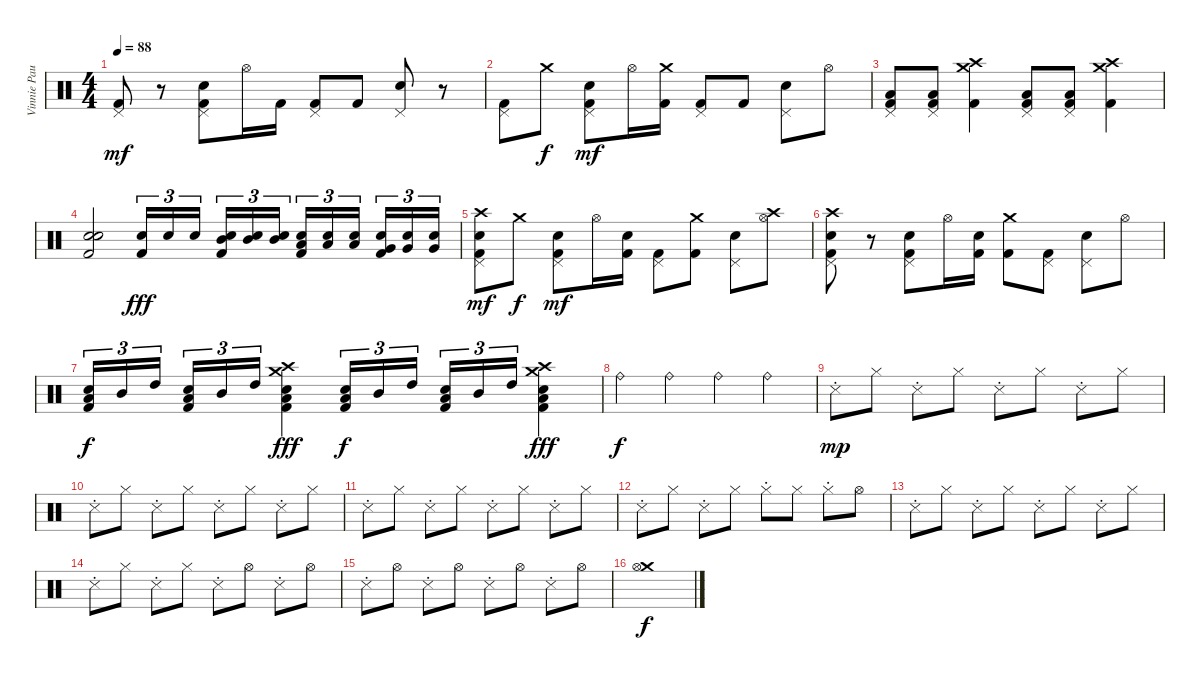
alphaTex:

\track ("Vinnie Paul" "Vinnie Pau") {instrument percussion}
\staff {score}
\articulation defaults
\ts (4 4)
\tempo 88
\clef neutral
\ks c
("Pedal Hi-Hat (hit)" "Kick (hit) 2").8{dy mf} r.8 ("Pedal Hi-Hat (hit)" "Snare (hit) 2" "Kick (hit) 2").8 "Hi-Hat (open)".16 "Kick (hit) 2".16 ("Pedal Hi-Hat (hit)" "Kick (hit) 2").8 "Kick (hit) 2".8 ("Pedal Hi-Hat (hit)" "Snare (hit) 2").8 r.8 |
("Pedal Hi-Hat (hit)" "Kick (hit) 2").8 "Crash medium (hit)".8{dy f} ("Pedal Hi-Hat (hit)" "Snare (hit) 2" "Kick (hit) 2").8{dy mf} "Hi-Hat (open)".16 ("Crash medium (hit)" "Kick (hit) 2").16 ("Pedal Hi-Hat (hit)" "Kick (hit) 2").8 "Kick (hit) 2".8 ("Pedal Hi-Hat (hit)" "Snare (hit) 2").8 "Hi-Hat (open)".8 |
("Pedal Hi-Hat (hit)" "Low Floor Tom (hit)" "Kick (hit) 2").8 ("Pedal Hi-Hat (hit)" "Low Floor Tom (hit)" "Kick (hit) 2").8 ("Crash high (hit)" "Crash medium (hit)" "Kick (hit) 2").4 ("Pedal Hi-Hat (hit)" "Low Floor Tom (hit)" "Kick (hit) 2").8 ("Pedal Hi-Hat (hit)" "Low Floor Tom (hit)" "Kick (hit) 2").8 ("Crash high (hit)" "Crash medium (hit)" "Kick (hit) 2").4 |
("Snare (hit) 2" "Snare (hit) 2" "Kick (hit) 2").2 ("Snare (hit) 2" "Kick (hit) 2").16{tu (3 2) dy fff} "Snare (hit) 2".16{tu (3 2)} "Snare (hit) 2".16{tu (3 2) beam splitsecondary} ("Mid Tom (hit)" "Snare (hit) 2" "Kick (hit) 2").16{tu (3 2)} ("Mid Tom (hit)" "Snare (hit) 2").16{tu (3 2)} ("Mid Tom (hit)" "Snare (hit) 2").16{tu (3 2)} ("Low Tom (hit)" "Snare (hit) 2" "Kick (hit) 2").16{tu (3 2)} ("Low Tom (hit)" "Snare (hit) 2").16{tu (3 2)} ("Low Tom (hit)" "Snare (hit) 2").16{tu (3 2) beam splitsecondary} ("Very Low Tom (hit)" "Snare (hit) 2" "Kick (hit) 2").16{tu (3 2)} ("Very Low Tom (hit)" "Snare (hit) 2").16{tu (3 2)} ("Very Low Tom (hit)" "Snare (hit) 2").16{tu (3 2)} |
("Crash high (hit)" "Pedal Hi-Hat (hit)" "Snare (hit) 2" "Kick (hit) 2").8{dy mf} "Crash medium (hit)".8{dy f} ("Pedal Hi-Hat (hit)" "Snare (hit) 2" "Kick (hit) 2").8{dy mf} "Hi-Hat (open)".16 ("Snare (hit) 2" "Kick (hit) 2").16 ("Pedal Hi-Hat (hit)" "Kick (hit) 2").8 ("Crash medium (hit)" "Kick (hit) 2").8 ("Pedal Hi-Hat (hit)" "Snare (hit) 2").8 ("Crash high (hit)" "Hi-Hat (open)").8 |
("Crash high (hit)" "Pedal Hi-Hat (hit)" "Snare (hit) 2" "Kick (hit) 2").8 r.8 ("Pedal Hi-Hat (hit)" "Snare (hit) 2" "Kick (hit) 2").8 "Hi-Hat (open)".16 ("Snare (hit) 2" "Kick (hit) 2").16 ("Crash medium (hit)" "Kick (hit) 2").8 ("Pedal Hi-Hat (hit)" "Kick (hit) 2").8 ("Pedal Hi-Hat (hit)" "Snare (hit) 2").8 "Hi-Hat (open)".8 |
("Low Tom (hit)" "Snare (hit) 2" "Kick (hit) 2").16{tu (3 2) dy f} "Mid Tom (hit)".16{tu (3 2)} "High Tom (hit)".16{tu (3 2) beam splitsecondary} ("Low Tom (hit)" "Snare (hit) 2" "Kick (hit) 2").16{tu (3 2)} "Mid Tom (hit)".16{tu (3 2)} "High Tom (hit)".16{tu (3 2)} ("Crash medium (hit)" "Crash high (hit)" "Low Floor Tom (hit)" "Snare (hit) 2" "Kick (hit) 2").4{dy fff} ("Low Tom (hit)" "Snare (hit) 2" "Kick (hit) 2").16{tu (3 2) dy f} "Mid Tom (hit)".16{tu (3 2)} "High Tom (hit)".16{tu (3 2) beam splitsecondary} ("Low Tom (hit)" "Snare (hit) 2" "Kick (hit) 2").16{tu (3 2)} "Mid Tom (hit)".16{tu (3 2)} "High Tom (hit)".16{tu (3 2)} ("Crash medium (hit)" "Crash high (hit)" "Low Floor Tom (hit)" "Snare (hit) 2" "Kick (hit) 2").4{dy fff} |
"Ride (bell)".4{dy f} "Ride (bell)".4 "Ride (bell)".4 "Ride (bell)".4 |
"Snare (side stick) 3"{st}.8{dy mp} "Hi-Hat (closed)".8 "Snare (side stick) 3"{st}.8 "Hi-Hat (closed)".8 "Snare (side stick) 3"{st}.8 "Hi-Hat (closed)".8 "Snare (side stick) 3"{st}.8 "Hi-Hat (closed)".8 |
"Snare (side stick) 3"{st}.8 "Hi-Hat (closed)".8 "Snare (side stick) 3"{st}.8 "Hi-Hat (closed)".8 "Snare (side stick) 3"{st}.8 "Hi-Hat (closed)".8 "Snare (side stick) 3"{st}.8 "Hi-Hat (closed)".8 |
"Snare (side stick) 3"{st}.8 "Hi-Hat (closed)".8 "Snare (side stick) 3"{st}.8 "Hi-Hat (closed)".8 "Snare (side stick) 3"{st}.8 "Hi-Hat (closed)".8 "Snare (side stick) 3"{st}.8 "Hi-Hat (closed)".8 |
"Snare (side stick) 3"{st}.8 "Hi-Hat (closed)".8 "Snare (side stick) 3"{st}.8 "Hi-Hat (closed)".8 "Hi-Hat (closed)"{st}.8 "Hi-Hat (closed)".8 "Hi-Hat (closed)"{st}.8 "Hi-Hat (open)".8 |
"Snare (side stick) 3"{st}.8 "Hi-Hat (closed)".8 "Snare (side stick) 3"{st}.8 "Hi-Hat (closed)".8 "Snare (side stick) 3"{st}.8 "Hi-Hat (closed)".8 "Snare (side stick) 3"{st}.8 "Hi-Hat (closed)".8 |
"Snare (side stick) 3"{st}.8 "Hi-Hat (closed)".8 "Snare (side stick) 3"{st}.8 "Hi-Hat (closed)".8 "Snare (side stick) 3"{st}.8 "Hi-Hat (open)".8 "Snare (side stick) 3"{st}.8 "Hi-Hat (open)".8 |
"Snare (side stick) 3"{st}.8 "Hi-Hat (open)".8 "Snare (side stick) 3"{st}.8 "Hi-Hat (open)".8 "Snare (side stick) 3"{st}.8 "Hi-Hat (open)".8 "Snare (side stick) 3"{st}.8 "Hi-Hat (open)".8 |
("Crash medium (hit)" "Hi-Hat (open)").1{dy f}
